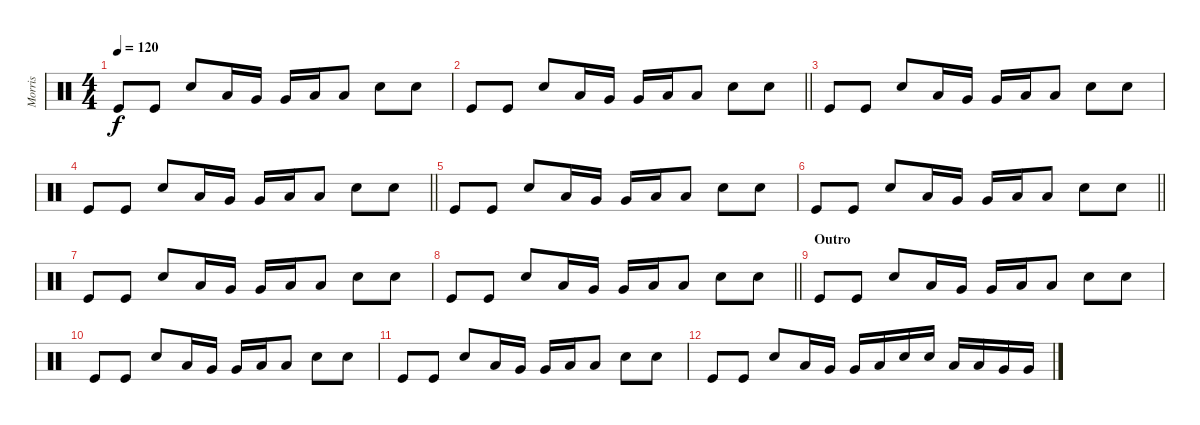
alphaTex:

\track ("Morris" "Morris") {instrument percussion}
\staff {score}
\articulation defaults
\ts (4 4)
\tempo 120
\clef neutral
\ks c "Kick (hit)".8{dy f} "Kick (hit)".8 "Electric Snare (hit)".8 "Low Floor Tom (hit)".16 "Very Low Tom (hit)".16 "Very Low Tom (hit)".16 "Low Floor Tom (hit)".16 "Low Tom (hit)".8 "Electric Snare (hit)".8 "Electric Snare (hit)".8
|
\barLineRight lightlight "Kick (hit)".8 "Kick (hit)".8 "Electric Snare (hit)".8 "Low Floor Tom (hit)".16 "Very Low Tom (hit)".16 "Very Low Tom (hit)".16 "Low Floor Tom (hit)".16 "Low Tom (hit)".8 "Electric Snare (hit)".8 "Electric Snare (hit)".8
|
"Kick (hit)".8 "Kick (hit)".8 "Electric Snare (hit)".8 "Low Floor Tom (hit)".16 "Very Low Tom (hit)".16 "Very Low Tom (hit)".16 "Low Floor Tom (hit)".16 "Low Tom (hit)".8 "Electric Snare (hit)".8 "Electric Snare (hit)".8 |
\barLineRight lightlight "Kick (hit)".8 "Kick (hit)".8 "Electric Snare (hit)".8 "Low Floor Tom (hit)".16 "Very Low Tom (hit)".16 "Very Low Tom (hit)".16 "Low Floor Tom (hit)".16 "Low Tom (hit)".8 "Electric Snare (hit)".8 "Electric Snare (hit)".8
|
"Kick (hit)".8 "Kick (hit)".8 "Electric Snare (hit)".8 "Low Floor Tom (hit)".16 "Very Low Tom (hit)".16 "Very Low Tom (hit)".16 "Low Floor Tom (hit)".16 "Low Tom (hit)".8 "Electric Snare (hit)".8 "Electric Snare (hit)".8 |
\barLineRight lightlight "Kick (hit)".8 "Kick (hit)".8 "Electric Snare (hit)".8 "Low Floor Tom (hit)".16 "Very Low Tom (hit)".16 "Very Low Tom (hit)".16 "Low Floor Tom (hit)".16 "Low Tom (hit)".8 "Electric Snare (hit)".8 "Electric Snare (hit)".8
|
"Kick (hit)".8 "Kick (hit)".8 "Electric Snare (hit)".8 "Low Floor Tom (hit)".16 "Very Low Tom (hit)".16 "Very Low Tom (hit)".16 "Low Floor Tom (hit)".16 "Low Tom (hit)".8 "Electric Snare (hit)".8 "Electric Snare (hit)".8 |
\barLineRight lightlight "Kick (hit)".8 "Kick (hit)".8 "Electric Snare (hit)".8 "Low Floor Tom (hit)".16 "Very Low Tom (hit)".16 "Very Low Tom (hit)".16 "Low Floor Tom (hit)".16 "Low Tom (hit)".8 "Electric Snare (hit)".8 "Electric Snare (hit)".8
|
\section ("" "Outro")
"Kick (hit)".8 "Kick (hit)".8 "Electric Snare (hit)".8 "Low Floor Tom (hit)".16 "Very Low Tom (hit)".16 "Very Low Tom (hit)".16 "Low Floor Tom (hit)".16 "Low Tom (hit)".8 "Electric Snare (hit)".8 "Electric Snare (hit)".8 |
"Kick (hit)".8 "Kick (hit)".8 "Electric Snare (hit)".8 "Low Floor Tom (hit)".16 "Very Low Tom (hit)".16 "Very Low Tom (hit)".16 "Low Floor Tom (hit)".16 "Low Tom (hit)".8 "Electric Snare (hit)".8 "Electric Snare (hit)".8 |
"Kick (hit)".8 "Kick (hit)".8 "Electric Snare (hit)".8 "Low Floor Tom (hit)".16 "Very Low Tom (hit)".16 "Very Low Tom (hit)".16 "Low Floor Tom (hit)".16 "Low Tom (hit)".8 "Electric Snare (hit)".8 "Electric Snare (hit)".8 |
"Kick (hit)".8 "Kick (hit)".8 "Electric Snare (hit)".8 "Low Floor Tom (hit)".16 "Very Low Tom (hit)".16 "Very Low Tom (hit)".16 "Low Floor Tom (hit)".16 "Electric Snare (hit)".16 "Electric Snare (hit)".16 "Low Tom (hit)".16 "Low Tom (hit)".16 "Very Low Tom (hit)".16 "Very Low Tom (hit)".16
